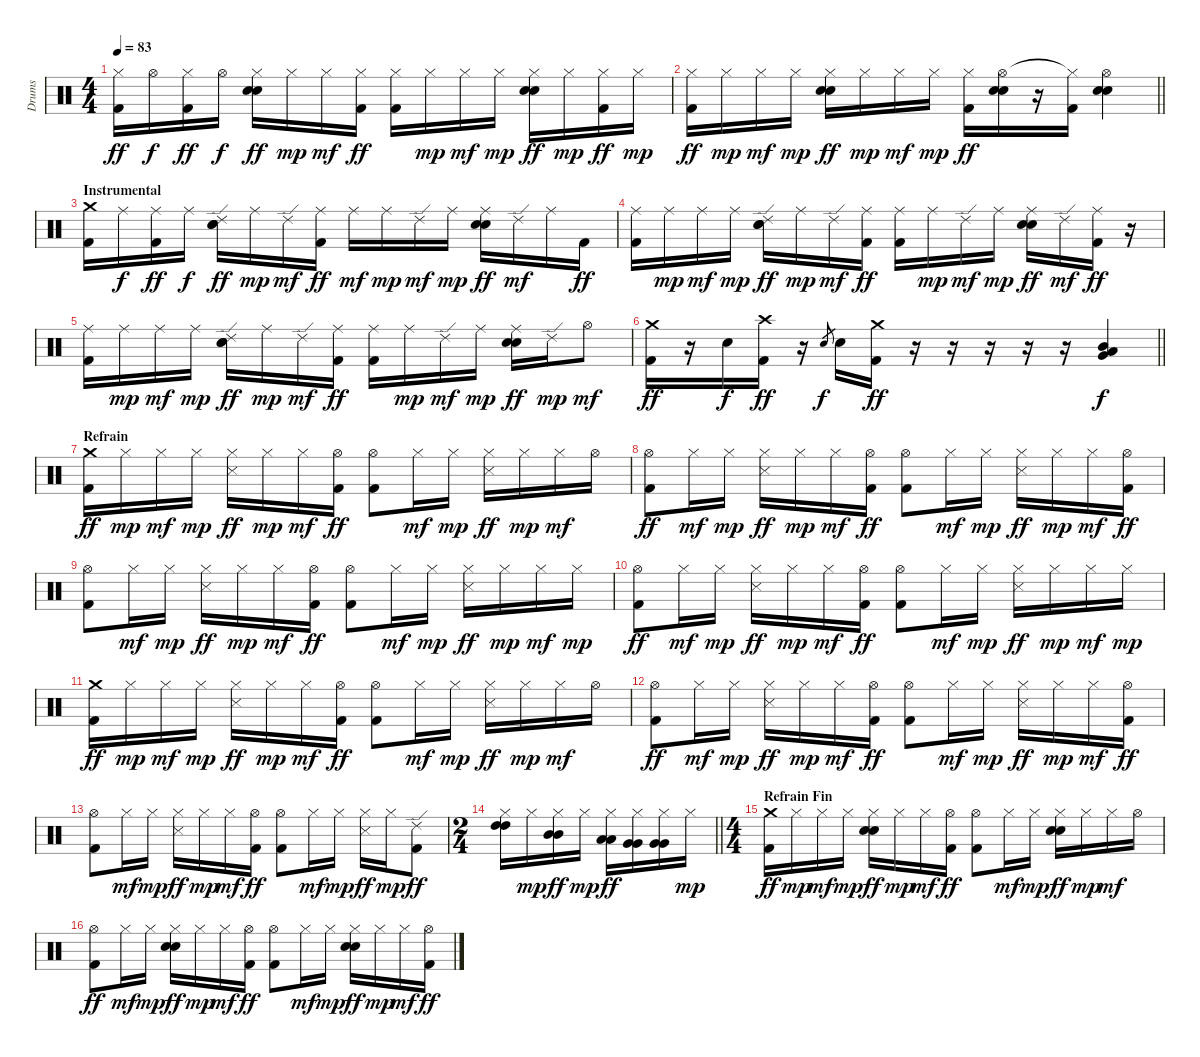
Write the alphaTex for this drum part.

\track ("Drums" "Drums") {instrument percussion}
\staff {score}
\articulation defaults
\ts (4 4)
\tempo 83
\clef neutral
\ks c
("Hi-Hat (closed)" "Kick (hit) 2").16{dy ff} "Hi-Hat (open)".16{dy f} ("Hi-Hat (closed)" "Kick (hit) 2").16{dy ff} "Hi-Hat (open)".16{dy f} ("Hi-Hat (closed)" "Electric Snare (hit)" "Snare (hit) 2").16{dy ff} "Hi-Hat (closed)".16{dy mp} "Hi-Hat (closed)".16{dy mf} ("Hi-Hat (closed)" "Kick (hit) 2").16{dy ff} ("Hi-Hat (closed)" "Kick (hit) 2").16 "Hi-Hat (closed)".16{dy mp} "Hi-Hat (closed)".16{dy mf} "Hi-Hat (closed)".16{dy mp} ("Hi-Hat (closed)" "Electric Snare (hit)" "Snare (hit) 2").16{dy ff} "Hi-Hat (closed)".16{dy mp} ("Hi-Hat (closed)" "Kick (hit) 2").16{dy ff} "Hi-Hat (closed)".16{dy mp} |
\barLineRight lightlight
("Hi-Hat (closed)" "Kick (hit) 2").16{dy ff} "Hi-Hat (closed)".16{dy mp} "Hi-Hat (closed)".16{dy mf} "Hi-Hat (closed)".16{dy mp} ("Hi-Hat (closed)" "Electric Snare (hit)" "Snare (hit) 2").16{dy ff} "Hi-Hat (closed)".16{dy mp} "Hi-Hat (closed)".16{dy mf} "Hi-Hat (closed)".16{dy mp} ("Hi-Hat (closed)" "Kick (hit) 2").16{dy ff} ("Hi-Hat (open)" "Electric Snare (hit)" "Snare (hit) 2").16 r.16 ("Hi-Hat (closed)"{t} "Kick (hit) 2").16 ("Hi-Hat (open)" "Electric Snare (hit)" "Snare (hit) 2").4 |
\section ("" "Instrumental")
("Crash medium (hit)" "Kick (hit) 2").16 "Ride (middle)".16{dy f} ("Ride (middle)" "Kick (hit) 2").16{dy ff} "Ride (middle)".16{dy f} ("Ride (edge) 2" "Electric Snare (hit)" "Snare (hit) 2").16{dy ff} "Ride (middle)".16{dy mp} "Ride (edge) 2".16{dy mf} ("Ride (middle)" "Kick (hit) 2").16{dy ff} "Ride (middle)".16{dy mf} "Ride (middle)".16{dy mp} "Ride (edge) 2".16{dy mf} "Ride (middle)".16{dy mp} ("Ride (middle)" "Electric Snare (hit)" "Snare (hit) 2").16{dy ff} "Ride (edge) 2".16{dy mf} "Ride (middle)".16 "Kick (hit) 2".16{dy ff} |
("Ride (middle)" "Kick (hit) 2").16 "Ride (middle)".16{dy mp} "Ride (middle)".16{dy mf} "Ride (middle)".16{dy mp} ("Ride (edge) 2" "Electric Snare (hit)" "Snare (hit) 2").16{dy ff} "Ride (middle)".16{dy mp} "Ride (edge) 2".16{dy mf} ("Ride (middle)" "Kick (hit) 2").16{dy ff} ("Ride (middle)" "Kick (hit) 2").16 "Ride (middle)".16{dy mp} "Ride (edge) 2".16{dy mf} "Ride (middle)".16{dy mp} ("Ride (middle)" "Electric Snare (hit)" "Snare (hit) 2").16{dy ff} "Ride (edge) 2".16{dy mf} ("Ride (middle)" "Kick (hit) 2").16{dy ff} r.16 |
("Ride (middle)" "Kick (hit) 2").16 "Ride (middle)".16{dy mp} "Ride (middle)".16{dy mf} "Ride (middle)".16{dy mp} ("Ride (edge) 2" "Electric Snare (hit)" "Snare (hit) 2").16{dy ff} "Ride (middle)".16{dy mp} "Ride (edge) 2".16{dy mf} ("Ride (middle)" "Kick (hit) 2").16{dy ff} ("Ride (middle)" "Kick (hit) 2").16 "Ride (middle)".16{dy mp} "Ride (edge) 2".16{dy mf} "Ride (middle)".16{dy mp} ("Ride (middle)" "Electric Snare (hit)" "Snare (hit) 2").16{dy ff} "Ride (edge) 2".16{dy mp} "Hi-Hat (open)".8{dy mf} |
\barLineRight lightlight
("Crash medium (hit)" "Kick (hit) 2").16{dy ff} r.16 "Electric Snare (hit)".16{dy f} ("Crash high (hit)" "Kick (hit) 2").16{dy ff} r.16 "Electric Snare (hit)".8{gr dy f} "Electric Snare (hit)".16 ("Crash medium (hit)" "Kick (hit) 2").16{dy ff} r.16 r.16 r.16 r.16 r.16 ("Mid Tom (hit)" "Low Tom (hit)" "Very Low Tom (hit)").4{dy f} |
\section ("" "Refrain")
("Crash medium (hit)" "Kick (hit) 2").16{dy ff} "Hi-Hat (closed)".16{dy mp} "Hi-Hat (closed)".16{dy mf} "Hi-Hat (closed)".16{dy mp} ("Hi-Hat (closed)" "Snare (side stick) 3").16{dy ff} "Hi-Hat (closed)".16{dy mp} "Hi-Hat (closed)".16{dy mf} ("Hi-Hat (open)" "Kick (hit) 2").16{dy ff} ("Hi-Hat (open)" "Kick (hit) 2").8 "Hi-Hat (closed)".16{dy mf} "Hi-Hat (closed)".16{dy mp} ("Hi-Hat (closed)" "Snare (side stick) 3").16{dy ff} "Hi-Hat (closed)".16{dy mp} "Hi-Hat (closed)".16{dy mf} "Hi-Hat (open)".16 |
("Hi-Hat (open)" "Kick (hit) 2").8{dy ff} "Hi-Hat (closed)".16{dy mf} "Hi-Hat (closed)".16{dy mp} ("Hi-Hat (closed)" "Snare (side stick) 3").16{dy ff} "Hi-Hat (closed)".16{dy mp} "Hi-Hat (closed)".16{dy mf} ("Hi-Hat (open)" "Kick (hit) 2").16{dy ff} ("Hi-Hat (open)" "Kick (hit) 2").8 "Hi-Hat (closed)".16{dy mf} "Hi-Hat (closed)".16{dy mp} ("Hi-Hat (closed)" "Snare (side stick) 3").16{dy ff} "Hi-Hat (closed)".16{dy mp} "Hi-Hat (closed)".16{dy mf} ("Hi-Hat (open)" "Kick (hit) 2").16{dy ff} |
("Hi-Hat (open)" "Kick (hit) 2").8 "Hi-Hat (closed)".16{dy mf} "Hi-Hat (closed)".16{dy mp} ("Hi-Hat (closed)" "Snare (side stick) 3").16{dy ff} "Hi-Hat (closed)".16{dy mp} "Hi-Hat (closed)".16{dy mf} ("Hi-Hat (open)" "Kick (hit) 2").16{dy ff} ("Hi-Hat (open)" "Kick (hit) 2").8 "Hi-Hat (closed)".16{dy mf} "Hi-Hat (closed)".16{dy mp} ("Hi-Hat (closed)" "Snare (side stick) 3").16{dy ff} "Hi-Hat (closed)".16{dy mp} "Hi-Hat (closed)".16{dy mf} "Hi-Hat (closed)".16{dy mp} |
("Hi-Hat (open)" "Kick (hit) 2").8{dy ff} "Hi-Hat (closed)".16{dy mf} "Hi-Hat (closed)".16{dy mp} ("Hi-Hat (closed)" "Snare (side stick) 3").16{dy ff} "Hi-Hat (closed)".16{dy mp} "Hi-Hat (closed)".16{dy mf} ("Hi-Hat (open)" "Kick (hit) 2").16{dy ff} ("Hi-Hat (open)" "Kick (hit) 2").8 "Hi-Hat (closed)".16{dy mf} "Hi-Hat (closed)".16{dy mp} ("Hi-Hat (closed)" "Snare (side stick) 3").16{dy ff} "Hi-Hat (closed)".16{dy mp} "Hi-Hat (closed)".16{dy mf} "Hi-Hat (closed)".16{dy mp} |
("Crash medium (hit)" "Kick (hit) 2").16{dy ff} "Hi-Hat (closed)".16{dy mp} "Hi-Hat (closed)".16{dy mf} "Hi-Hat (closed)".16{dy mp} ("Hi-Hat (closed)" "Snare (side stick) 3").16{dy ff} "Hi-Hat (closed)".16{dy mp} "Hi-Hat (closed)".16{dy mf} ("Hi-Hat (open)" "Kick (hit) 2").16{dy ff} ("Hi-Hat (open)" "Kick (hit) 2").8 "Hi-Hat (closed)".16{dy mf} "Hi-Hat (closed)".16{dy mp} ("Hi-Hat (closed)" "Snare (side stick) 3").16{dy ff} "Hi-Hat (closed)".16{dy mp} "Hi-Hat (closed)".16{dy mf} "Hi-Hat (open)".16 |
("Hi-Hat (open)" "Kick (hit) 2").8{dy ff} "Hi-Hat (closed)".16{dy mf} "Hi-Hat (closed)".16{dy mp} ("Hi-Hat (closed)" "Snare (side stick) 3").16{dy ff} "Hi-Hat (closed)".16{dy mp} "Hi-Hat (closed)".16{dy mf} ("Hi-Hat (open)" "Kick (hit) 2").16{dy ff} ("Hi-Hat (open)" "Kick (hit) 2").8 "Hi-Hat (closed)".16{dy mf} "Hi-Hat (closed)".16{dy mp} ("Hi-Hat (closed)" "Snare (side stick) 3").16{dy ff} "Hi-Hat (closed)".16{dy mp} "Hi-Hat (closed)".16{dy mf} ("Hi-Hat (open)" "Kick (hit) 2").16{dy ff} |
("Hi-Hat (open)" "Kick (hit) 2").8 "Hi-Hat (closed)".16{dy mf} "Hi-Hat (closed)".16{dy mp} ("Hi-Hat (closed)" "Snare (side stick) 3").16{dy ff} "Hi-Hat (closed)".16{dy mp} "Hi-Hat (closed)".16{dy mf} ("Hi-Hat (open)" "Kick (hit) 2").16{dy ff} ("Hi-Hat (open)" "Kick (hit) 2").8 "Hi-Hat (closed)".16{dy mf} "Hi-Hat (closed)".16{dy mp} ("Hi-Hat (closed)" "Snare (side stick) 3").16{dy ff} "Hi-Hat (closed)".16{dy mp} ("Ride (edge) 2" "Kick (hit) 2").8{dy ff} |
\ts (2 4)
\barLineRight lightlight
("Hi-Hat (closed)" "High Tom (hit)" "High Tom (hit)").16 "Hi-Hat (closed)".16{dy mp} ("Hi-Hat (closed)" "Mid Tom (hit)" "Mid Tom (hit)").16{dy ff} "Hi-Hat (closed)".16{dy mp} ("Hi-Hat (closed)" "Low Tom (hit)" "Low Tom (hit)").16{dy ff} ("Hi-Hat (closed)" "Very Low Tom (hit)" "Very Low Tom (hit)").16 ("Hi-Hat (closed)" "Very Low Tom (hit)" "Very Low Tom (hit)").16 "Hi-Hat (closed)".16{dy mp} |
\ts (4 4)
\section ("" "Refrain Fin")
("Crash medium (hit)" "Kick (hit) 2").16{dy ff} "Hi-Hat (closed)".16{dy mp} "Hi-Hat (closed)".16{dy mf} "Hi-Hat (closed)".16{dy mp} ("Hi-Hat (closed)" "Electric Snare (hit)" "Snare (hit) 2").16{dy ff} "Hi-Hat (closed)".16{dy mp} "Hi-Hat (closed)".16{dy mf} ("Hi-Hat (open)" "Kick (hit) 2").16{dy ff} ("Hi-Hat (open)" "Kick (hit) 2").8 "Hi-Hat (closed)".16{dy mf} "Hi-Hat (closed)".16{dy mp} ("Hi-Hat (closed)" "Electric Snare (hit)" "Snare (hit) 2").16{dy ff} "Hi-Hat (closed)".16{dy mp} "Hi-Hat (closed)".16{dy mf} "Hi-Hat (open)".16 |
("Hi-Hat (open)" "Kick (hit) 2").8{dy ff} "Hi-Hat (closed)".16{dy mf} "Hi-Hat (closed)".16{dy mp} ("Hi-Hat (closed)" "Electric Snare (hit)" "Snare (hit) 2").16{dy ff} "Hi-Hat (closed)".16{dy mp} "Hi-Hat (closed)".16{dy mf} ("Hi-Hat (open)" "Kick (hit) 2").16{dy ff} ("Hi-Hat (open)" "Kick (hit) 2").8 "Hi-Hat (closed)".16{dy mf} "Hi-Hat (closed)".16{dy mp} ("Hi-Hat (closed)" "Electric Snare (hit)" "Snare (hit) 2").16{dy ff} "Hi-Hat (closed)".16{dy mp} "Hi-Hat (closed)".16{dy mf} ("Hi-Hat (open)" "Kick (hit) 2").16{dy ff}
